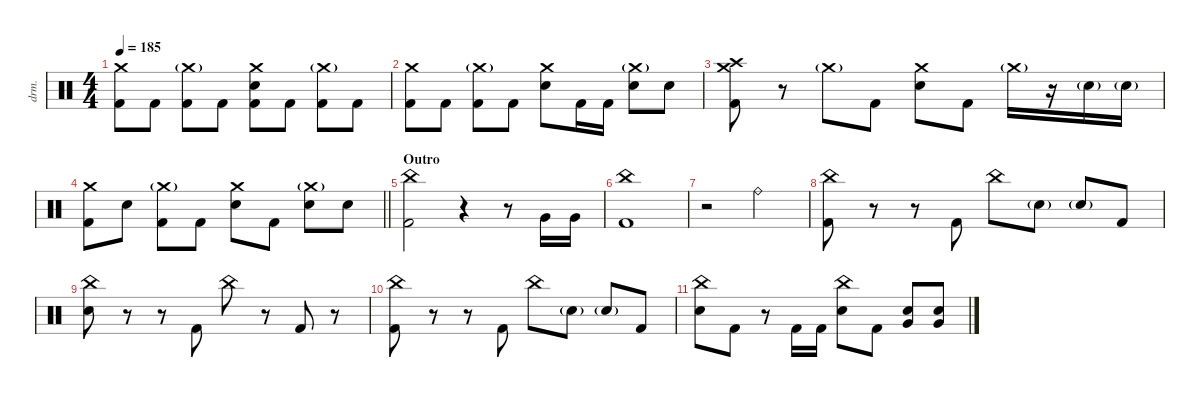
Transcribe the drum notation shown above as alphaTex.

\defaultSystemsLayout 4
\hideDynamics
\bracketExtendMode nobrackets
\track ("Drums - Šimon" "drm.") {instrument percussion}
\staff {score}
\articulation defaults
\ts (4 4)
\tempo 185
\clef neutral
\ks c
("Kick (hit) 2" "Crash medium (hit)").8{dy ff beam Down} "Kick (hit) 2".8{beam Down} ("Crash medium (hit)"{g} "Kick (hit) 2").8{beam Down} "Kick (hit) 2".8{beam Down} ("Crash medium (hit)" "Kick (hit) 2" "Snare (hit) 2").8{beam Down} "Kick (hit) 2".8{beam Down} ("Kick (hit) 2" "Crash medium (hit)"{g}).8{beam Down} "Kick (hit) 2".8{beam Down} |
("Crash medium (hit)" "Kick (hit) 2").8{beam Down} "Kick (hit) 2".8{beam Down} ("Crash medium (hit)"{g} "Kick (hit) 2").8{beam Down} "Kick (hit) 2".8{beam Down} ("Snare (hit) 2" "Crash medium (hit)").8{beam Down} "Kick (hit) 2".16{beam Down} "Kick (hit) 2".16{beam Down} ("Snare (hit) 2" "Crash medium (hit)"{g}).8{beam Down} "Snare (hit) 2".8{beam Down} |
("Kick (hit) 2" "Crash medium (hit)" "Crash high (hit)").8{beam Down} r.8{beam Down} "Crash medium (hit)"{g}.8{beam Down} "Kick (hit) 2".8{beam Down} ("Snare (hit) 2" "Crash medium (hit)").8{beam Down} "Kick (hit) 2".8{beam Down} "Crash medium (hit)"{g}.16{beam Down} r.16{beam Down} "Snare (hit) 2"{g}.16{beam Down} "Snare (hit) 2"{g}.16{beam Down} |
\barLineRight lightlight
("Crash medium (hit)" "Kick (hit) 2").8{beam Down} "Snare (hit) 2".8{beam Down} ("Kick (hit) 2" "Crash medium (hit)"{g}).8{beam Down} "Kick (hit) 2".8{beam Down} ("Snare (hit) 2" "Crash medium (hit)").8{beam Down} "Kick (hit) 2".8{beam Down} ("Crash medium (hit)"{g} "Snare (hit) 2").8{beam Down} "Snare (hit) 2".8{beam Down} |
\section ("" "Outro")
("China (hit)" "Kick (hit) 2").2{beam Down} r.4{beam Down} r.8{beam Down} "Very Low Tom (hit)".16{beam Up} "Very Low Tom (hit)".16{beam Up} |
("China (hit)" "Kick (hit) 2").1{beam Down} |
r.2{beam Down} "Ride (bell)".2{beam Down} |
("Kick (hit) 2" "China (hit)").8{beam Down} r.8{beam Down} r.8{beam Down} "Kick (hit) 2".8{beam Up} "China (hit)".8{beam Down} "Snare (hit) 2"{g}.8{beam Down} "Snare (hit) 2"{g}.8{beam Up} "Kick (hit) 2".8{beam Up} |
("China (hit)" "Snare (hit) 2").8{beam Down} r.8{beam Down} r.8{beam Down} "Kick (hit) 2".8{beam Up} "China (hit)".8{beam Down} r.8{beam Down} "Kick (hit) 2".8{beam Up} r.8{beam Down} |
("Kick (hit) 2" "China (hit)").8{beam Down} r.8{beam Down} r.8{beam Down} "Kick (hit) 2".8{beam Up} "China (hit)".8{beam Down} "Snare (hit) 2"{g}.8{beam Down} "Snare (hit) 2"{g}.8{beam Up} "Kick (hit) 2".8{beam Up} |
("China (hit)" "Snare (hit) 2").8{beam Down} "Kick (hit) 2".8{beam Down} r.8{beam Down} "Kick (hit) 2".16{beam Up} "Kick (hit) 2".16{beam Up} ("China (hit)" "Snare (hit) 2").8{beam Down} "Kick (hit) 2".8{beam Down} ("Snare (hit) 2" "Very Low Tom (hit)").8{beam Up} ("Snare (hit) 2" "Very Low Tom (hit)").8{beam Up}
